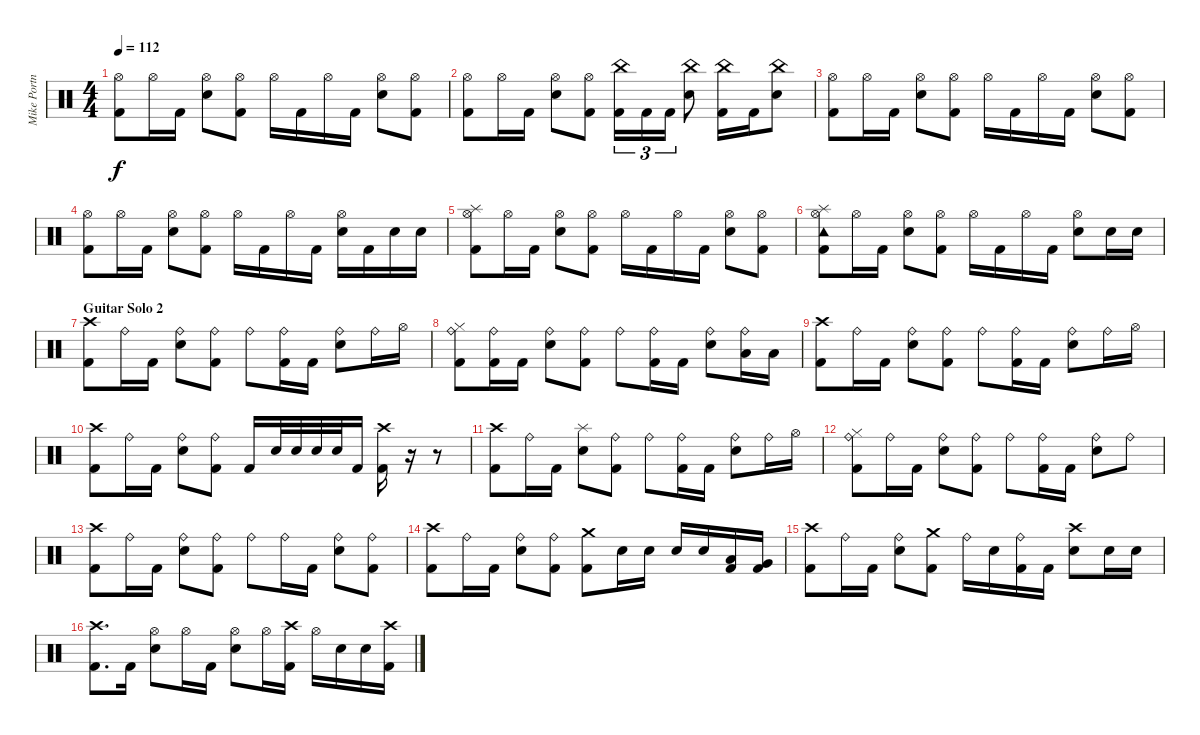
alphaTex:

\track ("Mike Portnoy" "Mike Portn") {instrument percussion}
\staff {score}
\articulation defaults
\ts (4 4)
\tempo 112
\clef neutral
\ks c
("Kick (hit) 2" "Hi-Hat (open)").8{dy f} "Hi-Hat (open)".16 "Kick (hit) 2".16 ("Electric Snare (hit)" "Hi-Hat (open)").8 ("Kick (hit) 2" "Hi-Hat (open)").8 "Hi-Hat (open)".16 "Kick (hit) 2".16 "Hi-Hat (open)".16 "Kick (hit) 2".16 ("Electric Snare (hit)" "Hi-Hat (open)").8 ("Kick (hit) 2" "Hi-Hat (open)").8 |
("Kick (hit) 2" "Hi-Hat (open)").8 "Hi-Hat (open)".16 "Kick (hit) 2".16 ("Electric Snare (hit)" "Hi-Hat (open)").8 ("Kick (hit) 2" "Hi-Hat (open)").8 ("Kick (hit) 2" "China (hit)").16{tu (3 2)} "Kick (hit) 2".16{tu (3 2)} "Kick (hit) 2".16{tu (3 2)} ("Electric Snare (hit)" "China (hit)").8 ("Kick (hit) 2" "China (hit)").16 "Kick (hit) 2".16 ("Electric Snare (hit)" "China (hit)").8 |
("Kick (hit) 2" "Hi-Hat (open)").8 "Hi-Hat (open)".16 "Kick (hit) 2".16 ("Electric Snare (hit)" "Hi-Hat (open)").8 ("Kick (hit) 2" "Hi-Hat (open)").8 "Hi-Hat (open)".16 "Kick (hit) 2".16 "Hi-Hat (open)".16 "Kick (hit) 2".16 ("Electric Snare (hit)" "Hi-Hat (open)").8 ("Kick (hit) 2" "Hi-Hat (open)").8 |
("Kick (hit) 2" "Hi-Hat (open)").8 "Hi-Hat (open)".16 "Kick (hit) 2".16 ("Electric Snare (hit)" "Hi-Hat (open)").8 ("Kick (hit) 2" "Hi-Hat (open)").8 "Hi-Hat (open)".16 "Kick (hit) 2".16 "Hi-Hat (open)".16 "Kick (hit) 2".16 ("Electric Snare (hit)" "Hi-Hat (open)").16 "Kick (hit) 2".16 "Electric Snare (hit)".16 "Electric Snare (hit)".16 |
("Kick (hit) 2" "Hi-Hat (open)" "Splash (hit)").8 "Hi-Hat (open)".16 "Kick (hit) 2".16 ("Electric Snare (hit)" "Hi-Hat (open)").8 ("Kick (hit) 2" "Hi-Hat (open)").8 "Hi-Hat (open)".16 "Kick (hit) 2".16 "Hi-Hat (open)".16 "Kick (hit) 2".16 ("Electric Snare (hit)" "Hi-Hat (open)").8 ("Kick (hit) 2" "Hi-Hat (open)").8 |
("Kick (hit) 2" "Hi-Hat (open)" "Tambourine (hit)" "Splash (hit)").8 "Hi-Hat (open)".16 "Kick (hit) 2".16 ("Electric Snare (hit)" "Hi-Hat (open)").8 ("Kick (hit) 2" "Hi-Hat (open)").8 "Hi-Hat (open)".16 "Kick (hit) 2".16 "Hi-Hat (open)".16 "Kick (hit) 2".16 ("Electric Snare (hit)" "Hi-Hat (open)").8 "Electric Snare (hit)".16 "Electric Snare (hit)".16 |
\section ("" "Guitar Solo 2")
("Kick (hit) 2" "Crash high (hit)").8 "Ride (bell)".16 "Kick (hit) 2".16 ("Electric Snare (hit)" "Ride (bell)").8 ("Kick (hit) 2" "Ride (bell)").8 "Ride (bell)".8 ("Kick (hit) 2" "Ride (bell)").16 "Kick (hit) 2".16 ("Electric Snare (hit)" "Ride (bell)").8 "Ride (bell)".16 "Hi-Hat (open)".16 |
("Kick (hit) 2" "Hi-Hat (closed)" "Ride (bell)").8 ("Kick (hit) 2" "Ride (bell)").16 "Kick (hit) 2".16 ("Electric Snare (hit)" "Ride (bell)").8 ("Kick (hit) 2" "Ride (bell)").8 "Ride (bell)".8 ("Kick (hit) 2" "Ride (bell)").16 "Kick (hit) 2".16 ("Electric Snare (hit)" "Ride (bell)").8 ("Low Tom (hit)" "Ride (bell)").16 "Low Tom (hit)".16 |
("Kick (hit) 2" "Crash high (hit)").8 "Ride (bell)".16 "Kick (hit) 2".16 ("Electric Snare (hit)" "Ride (bell)").8 ("Kick (hit) 2" "Ride (bell)").8 "Ride (bell)".8 ("Kick (hit) 2" "Ride (bell)").16 "Kick (hit) 2".16 ("Electric Snare (hit)" "Ride (bell)").8 "Ride (bell)".16 "Hi-Hat (open)".16 |
("Kick (hit) 2" "Crash high (hit)").8 "Ride (bell)".16 "Kick (hit) 2".16 ("Electric Snare (hit)" "Ride (bell)").8 ("Kick (hit) 2" "Ride (bell)").8 "Kick (hit) 2".16 "Electric Snare (hit)".32 "Electric Snare (hit)".32 "Electric Snare (hit)".32 "Electric Snare (hit)".32 "Kick (hit) 2".16 ("Kick (hit) 2" "Crash high (hit)").16 r.16 r.8 |
("Kick (hit) 2" "Crash high (hit)").8 "Ride (bell)".16 "Kick (hit) 2".16 ("Electric Snare (hit)" "Splash (hit)").8 ("Kick (hit) 2" "Ride (bell)").8 "Ride (bell)".8 ("Kick (hit) 2" "Ride (bell)").16 "Kick (hit) 2".16 ("Electric Snare (hit)" "Ride (bell)").8 "Ride (bell)".16 "Hi-Hat (open)".16 |
("Kick (hit) 2" "Hi-Hat (closed)" "Ride (bell)").8 "Ride (bell)".16 "Kick (hit) 2".16 ("Electric Snare (hit)" "Ride (bell)").8 ("Kick (hit) 2" "Ride (bell)").8 "Ride (bell)".8 ("Kick (hit) 2" "Ride (bell)").16 "Kick (hit) 2".16 ("Electric Snare (hit)" "Ride (bell)").8 "Ride (bell)".8 |
("Kick (hit) 2" "Crash high (hit)").8 "Ride (bell)".16 "Kick (hit) 2".16 ("Electric Snare (hit)" "Ride (bell)").8 ("Kick (hit) 2" "Ride (bell)").8 "Ride (bell)".8 "Ride (bell)".16 "Kick (hit) 2".16 ("Electric Snare (hit)" "Ride (bell)").8 ("Kick (hit) 2" "Ride (bell)").8 |
("Kick (hit) 2" "Crash high (hit)").8 "Ride (bell)".16 "Kick (hit) 2".16 ("Electric Snare (hit)" "Ride (bell)").8 ("Kick (hit) 2" "Ride (bell)").8 ("Kick (hit) 2" "Crash medium (hit)").8 "Electric Snare (hit)".16 "Electric Snare (hit)".16 "Electric Snare (hit)".16 "Electric Snare (hit)".16 ("Kick (hit) 2" "Low Tom (hit)").16 ("Kick (hit) 2" "Very Low Tom (hit)").16 |
("Kick (hit) 2" "Crash high (hit)").8 "Ride (bell)".16 "Kick (hit) 2".16 ("Electric Snare (hit)" "Ride (bell)").8 ("Kick (hit) 2" "Crash medium (hit)").8 "Ride (bell)".16 "Electric Snare (hit)".16 ("Kick (hit) 2" "Ride (bell)").16 "Kick (hit) 2".16 ("Electric Snare (hit)" "Crash high (hit)").8 "Electric Snare (hit)".16 "Electric Snare (hit)".16 |
("Kick (hit) 2" "Crash high (hit)").8{d} "Kick (hit) 2".16 ("Electric Snare (hit)" "Hi-Hat (open)").8 "Hi-Hat (open)".16 "Kick (hit) 2".16 ("Electric Snare (hit)" "Hi-Hat (open)").8 "Hi-Hat (open)".16 ("Kick (hit) 2" "Crash high (hit)").16 "Hi-Hat (open)".16 "Electric Snare (hit)".16 "Electric Snare (hit)".16 ("Kick (hit) 2" "Crash high (hit)").16
